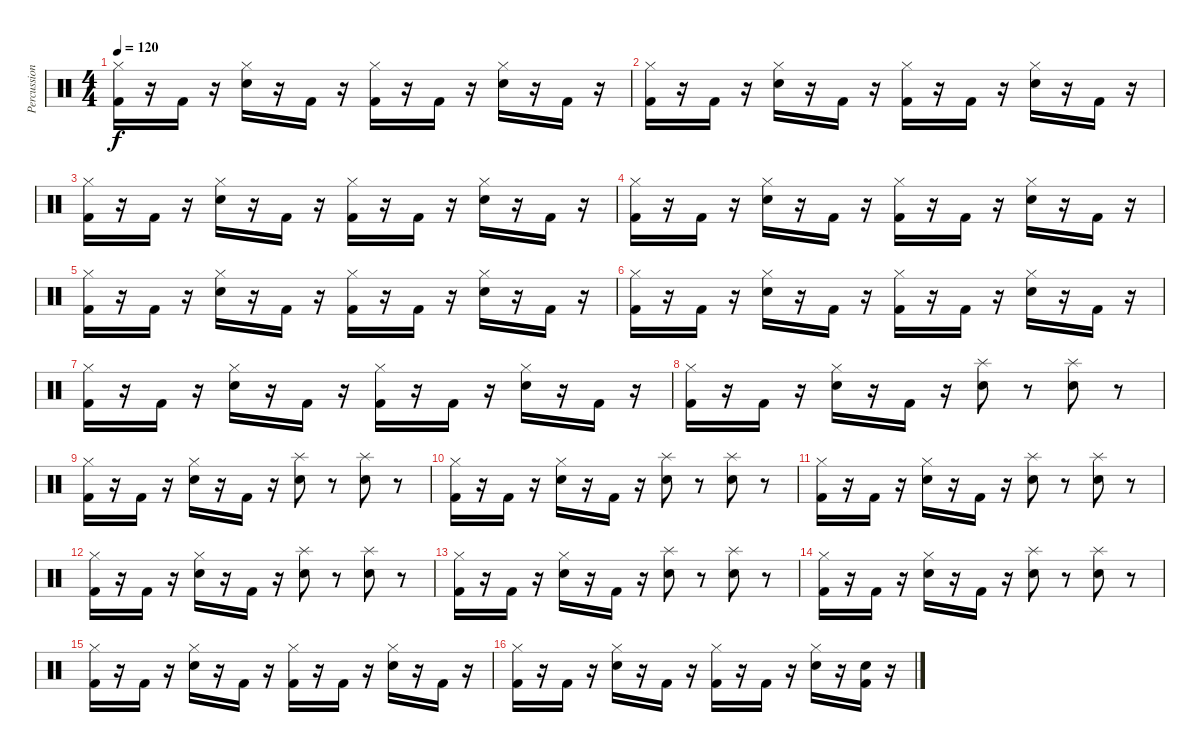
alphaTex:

\track ("Percussion" "Percussion") {instrument percussion}
\staff {score}
\articulation defaults
\ts (4 4)
\tempo 120
\clef neutral
\ks c
("Kick (hit) 2" "Hi-Hat (closed)").16{dy f} r.16 "Kick (hit) 2".16 r.16 ("Snare (hit) 2" "Hi-Hat (closed)").16 r.16 "Kick (hit) 2".16 r.16 ("Kick (hit) 2" "Hi-Hat (closed)").16 r.16 "Kick (hit) 2".16 r.16 ("Snare (hit) 2" "Hi-Hat (closed)").16 r.16 "Kick (hit) 2".16 r.16 |
("Kick (hit) 2" "Hi-Hat (closed)").16 r.16 "Kick (hit) 2".16 r.16 ("Snare (hit) 2" "Hi-Hat (closed)").16 r.16 "Kick (hit) 2".16 r.16 ("Kick (hit) 2" "Hi-Hat (closed)").16 r.16 "Kick (hit) 2".16 r.16 ("Snare (hit) 2" "Hi-Hat (closed)").16 r.16 "Kick (hit) 2".16 r.16 |
("Kick (hit) 2" "Hi-Hat (closed)").16 r.16 "Kick (hit) 2".16 r.16 ("Snare (hit) 2" "Hi-Hat (closed)").16 r.16 "Kick (hit) 2".16 r.16 ("Kick (hit) 2" "Hi-Hat (closed)").16 r.16 "Kick (hit) 2".16 r.16 ("Snare (hit) 2" "Hi-Hat (closed)").16 r.16 "Kick (hit) 2".16 r.16 |
("Kick (hit) 2" "Hi-Hat (closed)").16 r.16 "Kick (hit) 2".16 r.16 ("Snare (hit) 2" "Hi-Hat (closed)").16 r.16 "Kick (hit) 2".16 r.16 ("Kick (hit) 2" "Hi-Hat (closed)").16 r.16 "Kick (hit) 2".16 r.16 ("Snare (hit) 2" "Hi-Hat (closed)").16 r.16 "Kick (hit) 2".16 r.16 |
("Kick (hit) 2" "Hi-Hat (closed)").16 r.16 "Kick (hit) 2".16 r.16 ("Snare (hit) 2" "Hi-Hat (closed)").16 r.16 "Kick (hit) 2".16 r.16 ("Kick (hit) 2" "Hi-Hat (closed)").16 r.16 "Kick (hit) 2".16 r.16 ("Snare (hit) 2" "Hi-Hat (closed)").16 r.16 "Kick (hit) 2".16 r.16 |
("Kick (hit) 2" "Hi-Hat (closed)").16 r.16 "Kick (hit) 2".16 r.16 ("Snare (hit) 2" "Hi-Hat (closed)").16 r.16 "Kick (hit) 2".16 r.16 ("Kick (hit) 2" "Hi-Hat (closed)").16 r.16 "Kick (hit) 2".16 r.16 ("Snare (hit) 2" "Hi-Hat (closed)").16 r.16 "Kick (hit) 2".16 r.16 |
("Kick (hit) 2" "Hi-Hat (closed)").16 r.16 "Kick (hit) 2".16 r.16 ("Snare (hit) 2" "Hi-Hat (closed)").16 r.16 "Kick (hit) 2".16 r.16 ("Kick (hit) 2" "Hi-Hat (closed)").16 r.16 "Kick (hit) 2".16 r.16 ("Snare (hit) 2" "Hi-Hat (closed)").16 r.16 "Kick (hit) 2".16 r.16 |
("Kick (hit) 2" "Hi-Hat (closed)").16 r.16 "Kick (hit) 2".16 r.16 ("Snare (hit) 2" "Hi-Hat (closed)").16 r.16 "Kick (hit) 2".16 r.16 ("Snare (hit) 2" "Splash (hit)").8 r.8 ("Snare (hit) 2" "Splash (hit)").8 r.8 |
("Kick (hit) 2" "Hi-Hat (closed)").16 r.16 "Kick (hit) 2".16 r.16 ("Snare (hit) 2" "Hi-Hat (closed)").16 r.16 "Kick (hit) 2".16 r.16 ("Snare (hit) 2" "Splash (hit)").8 r.8 ("Snare (hit) 2" "Splash (hit)").8 r.8 |
("Kick (hit) 2" "Hi-Hat (closed)").16 r.16 "Kick (hit) 2".16 r.16 ("Snare (hit) 2" "Hi-Hat (closed)").16 r.16 "Kick (hit) 2".16 r.16 ("Snare (hit) 2" "Splash (hit)").8 r.8 ("Snare (hit) 2" "Splash (hit)").8 r.8 |
("Kick (hit) 2" "Hi-Hat (closed)").16 r.16 "Kick (hit) 2".16 r.16 ("Snare (hit) 2" "Hi-Hat (closed)").16 r.16 "Kick (hit) 2".16 r.16 ("Snare (hit) 2" "Splash (hit)").8 r.8 ("Snare (hit) 2" "Splash (hit)").8 r.8 |
("Kick (hit) 2" "Hi-Hat (closed)").16 r.16 "Kick (hit) 2".16 r.16 ("Snare (hit) 2" "Hi-Hat (closed)").16 r.16 "Kick (hit) 2".16 r.16 ("Snare (hit) 2" "Splash (hit)").8 r.8 ("Snare (hit) 2" "Splash (hit)").8 r.8 |
("Kick (hit) 2" "Hi-Hat (closed)").16 r.16 "Kick (hit) 2".16 r.16 ("Snare (hit) 2" "Hi-Hat (closed)").16 r.16 "Kick (hit) 2".16 r.16 ("Snare (hit) 2" "Splash (hit)").8 r.8 ("Snare (hit) 2" "Splash (hit)").8 r.8 |
("Kick (hit) 2" "Hi-Hat (closed)").16 r.16 "Kick (hit) 2".16 r.16 ("Snare (hit) 2" "Hi-Hat (closed)").16 r.16 "Kick (hit) 2".16 r.16 ("Snare (hit) 2" "Splash (hit)").8 r.8 ("Snare (hit) 2" "Splash (hit)").8 r.8 |
("Kick (hit) 2" "Hi-Hat (closed)").16 r.16 "Kick (hit) 2".16 r.16 ("Snare (hit) 2" "Hi-Hat (closed)").16 r.16 "Kick (hit) 2".16 r.16 ("Kick (hit) 2" "Hi-Hat (closed)").16 r.16 "Kick (hit) 2".16 r.16 ("Snare (hit) 2" "Hi-Hat (closed)").16 r.16 "Kick (hit) 2".16 r.16 |
("Kick (hit) 2" "Hi-Hat (closed)").16 r.16 "Kick (hit) 2".16 r.16 ("Snare (hit) 2" "Hi-Hat (closed)").16 r.16 "Kick (hit) 2".16 r.16 ("Kick (hit) 2" "Hi-Hat (closed)").16 r.16 "Kick (hit) 2".16 r.16 ("Snare (hit) 2" "Hi-Hat (closed)").16 r.16 ("Kick (hit) 2" "Snare (hit) 2").16 r.16
